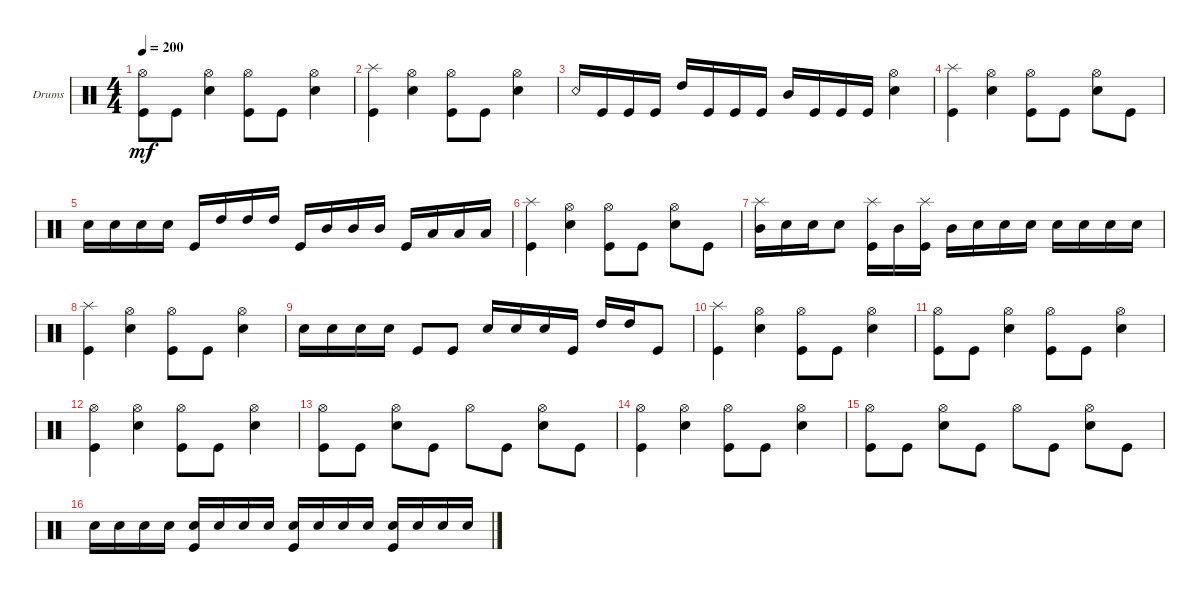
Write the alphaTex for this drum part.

\defaultSystemsLayout 4
\bracketExtendMode groupsimilarinstruments
\firstSystemTrackNameOrientation horizontal
\otherSystemsTrackNameOrientation horizontal
\track ("Hell on da drums" "Drums") {instrument percussion}
\staff {score}
\articulation defaults
\ts (4 4)
\tempo 200
\clef neutral
\ks c
("Kick (hit)" "Hi-Hat (open)").8{dy mf} "Kick (hit)".8 ("Snare (hit) 2" "Hi-Hat (open)").4 ("Hi-Hat (open)" "Kick (hit)").8 "Kick (hit)".8 ("Snare (hit) 2" "Hi-Hat (open)").4 |
("Kick (hit)" "Splash (hit)").4 ("Snare (hit) 2" "Hi-Hat (open)").4 ("Kick (hit)" "Hi-Hat (open)").8 "Kick (hit)".8 ("Snare (hit) 2" "Hi-Hat (open)").4 |
"Snare (rim shot)".16 "Kick (hit)".16 "Kick (hit)".16 "Kick (hit)".16 "High Tom (hit)".16 "Kick (hit)".16 "Kick (hit)".16 "Kick (hit)".16 "Mid Tom (hit)".16 "Kick (hit)".16 "Kick (hit)".16 "Kick (hit)".16 ("Snare (hit) 2" "Hi-Hat (open)").4 |
("Kick (hit)" "Splash (hit)").4 ("Snare (hit) 2" "Hi-Hat (open)").4 ("Kick (hit)" "Hi-Hat (open)").8 "Kick (hit)".8 ("Snare (hit) 2" "Hi-Hat (open)").8 "Kick (hit)".8 |
"Snare (hit) 2".16 "Snare (hit) 2".16 "Snare (hit) 2".16 "Snare (hit) 2".16 "Kick (hit)".16 "High Tom (hit)".16 "High Tom (hit)".16 "High Tom (hit)".16 "Kick (hit)".16 "Mid Tom (hit)".16 "Mid Tom (hit)".16 "Mid Tom (hit)".16 "Kick (hit)".16 "Low Tom (hit)".16 "Low Tom (hit)".16 "Low Tom (hit)".16 |
("Kick (hit)" "Splash (hit)").4 ("Snare (hit) 2" "Hi-Hat (open)").4 ("Kick (hit)" "Hi-Hat (open)").8 "Kick (hit)".8 ("Snare (hit) 2" "Hi-Hat (open)").8 "Kick (hit)".8 |
("Mid Tom (hit)" "Splash (hit)").16 "Snare (hit) 2".16 "Snare (hit) 2".16 "Snare (hit) 2".8 ("Kick (hit)" "Splash (hit)").16 "Mid Tom (hit)".16 ("Kick (hit)" "Splash (hit)").16 "Mid Tom (hit)".16 "Snare (hit) 2".16 "Snare (hit) 2".16 "Snare (hit) 2".16 "Snare (hit) 2".16 "Snare (hit) 2".16 "Snare (hit) 2".16 "Snare (hit) 2".16 |
("Kick (hit)" "Splash (hit)").4 ("Snare (hit) 2" "Hi-Hat (open)").4 ("Kick (hit)" "Hi-Hat (open)").8 "Kick (hit)".8 ("Snare (hit) 2" "Hi-Hat (open)").4 |
"Snare (hit) 2".16 "Snare (hit) 2".16 "Snare (hit) 2".16 "Snare (hit) 2".16 "Kick (hit)".8 "Kick (hit)".8 "Snare (hit) 2".16 "Snare (hit) 2".16 "Snare (hit) 2".16 "Kick (hit)".16 "High Tom (hit)".16 "High Tom (hit)".16 "Kick (hit)".8 |
("Kick (hit)" "Splash (hit)").4 ("Snare (hit) 2" "Hi-Hat (open)").4 ("Kick (hit)" "Hi-Hat (open)").8 "Kick (hit)".8 ("Snare (hit) 2" "Hi-Hat (open)").4 |
("Kick (hit)" "Hi-Hat (open)").8 "Kick (hit)".8 ("Snare (hit) 2" "Hi-Hat (open)").4 ("Hi-Hat (open)" "Kick (hit)").8 "Kick (hit)".8 ("Snare (hit) 2" "Hi-Hat (open)").4 |
("Kick (hit)" "Hi-Hat (open)").4 ("Snare (hit) 2" "Hi-Hat (open)").4 ("Kick (hit)" "Hi-Hat (open)").8 "Kick (hit)".8 ("Snare (hit) 2" "Hi-Hat (open)").4 |
("Kick (hit)" "Hi-Hat (open)").8 "Kick (hit)".8 ("Snare (hit) 2" "Hi-Hat (open)").8 "Kick (hit)".8 "Hi-Hat (open)".8 "Kick (hit)".8 ("Snare (hit) 2" "Hi-Hat (open)").8 "Kick (hit)".8 |
("Kick (hit)" "Hi-Hat (open)").4 ("Snare (hit) 2" "Hi-Hat (open)").4 ("Kick (hit)" "Hi-Hat (open)").8 "Kick (hit)".8 ("Snare (hit) 2" "Hi-Hat (open)").4 |
("Kick (hit)" "Hi-Hat (open)").8 "Kick (hit)".8 ("Snare (hit) 2" "Hi-Hat (open)").8 "Kick (hit)".8 "Hi-Hat (open)".8 "Kick (hit)".8 ("Snare (hit) 2" "Hi-Hat (open)").8 "Kick (hit)".8 |
"Snare (hit) 2".16 "Snare (hit) 2".16 "Snare (hit) 2".16 "Snare (hit) 2".16 ("Kick (hit)" "Snare (hit) 2").16 "Snare (hit) 2".16 "Snare (hit) 2".16 "Snare (hit) 2".16 ("Snare (hit) 2" "Kick (hit)").16 "Snare (hit) 2".16 "Snare (hit) 2".16 "Snare (hit) 2".16 ("Kick (hit)" "Snare (hit) 2").16 "Snare (hit) 2".16 "Snare (hit) 2".16 "Snare (hit) 2".16
